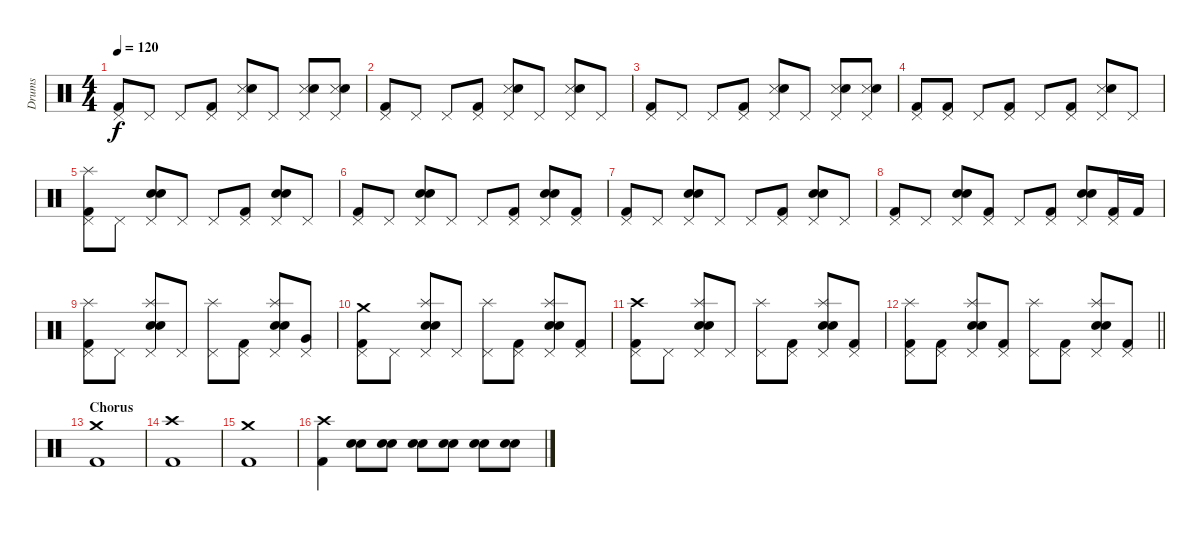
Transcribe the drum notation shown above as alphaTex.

\track ("Drums" "Drums") {instrument percussion}
\staff {score}
\articulation defaults
\ts (4 4)
\tempo 120
\clef neutral
\ks c
("Pedal Hi-Hat (hit)" "Kick (hit) 2").8{dy f} "Pedal Hi-Hat (hit)".8 "Pedal Hi-Hat (hit)".8 ("Pedal Hi-Hat (hit)" "Kick (hit) 2").8 ("Pedal Hi-Hat (hit)" "Snare (side stick) 3" "Electric Snare (hit)").8 "Pedal Hi-Hat (hit)".8 ("Pedal Hi-Hat (hit)" "Snare (side stick) 3" "Electric Snare (hit)").8 ("Pedal Hi-Hat (hit)" "Snare (side stick) 3" "Electric Snare (hit)").8 |
("Pedal Hi-Hat (hit)" "Kick (hit) 2").8 "Pedal Hi-Hat (hit)".8 "Pedal Hi-Hat (hit)".8 ("Pedal Hi-Hat (hit)" "Kick (hit) 2").8 ("Pedal Hi-Hat (hit)" "Snare (side stick) 3" "Electric Snare (hit)").8 "Pedal Hi-Hat (hit)".8 ("Pedal Hi-Hat (hit)" "Snare (side stick) 3" "Electric Snare (hit)").8 "Pedal Hi-Hat (hit)".8 |
("Pedal Hi-Hat (hit)" "Kick (hit) 2").8 "Pedal Hi-Hat (hit)".8 "Pedal Hi-Hat (hit)".8 ("Pedal Hi-Hat (hit)" "Kick (hit) 2").8 ("Pedal Hi-Hat (hit)" "Snare (side stick) 3" "Electric Snare (hit)").8 "Pedal Hi-Hat (hit)".8 ("Pedal Hi-Hat (hit)" "Snare (side stick) 3" "Electric Snare (hit)").8 ("Pedal Hi-Hat (hit)" "Snare (side stick) 3" "Electric Snare (hit)").8 |
("Pedal Hi-Hat (hit)" "Kick (hit) 2").8 ("Pedal Hi-Hat (hit)" "Kick (hit) 2").8 "Pedal Hi-Hat (hit)".8 ("Pedal Hi-Hat (hit)" "Kick (hit) 2").8 "Pedal Hi-Hat (hit)".8 ("Pedal Hi-Hat (hit)" "Kick (hit) 2").8 ("Pedal Hi-Hat (hit)" "Snare (side stick) 3" "Electric Snare (hit)").8 "Pedal Hi-Hat (hit)".8 |
("Splash (hit)" "Pedal Hi-Hat (hit)" "Kick (hit) 2").8 "Pedal Hi-Hat (hit)".8 ("Pedal Hi-Hat (hit)" "Electric Snare (hit)" "Snare (hit) 2").8 "Pedal Hi-Hat (hit)".8 "Pedal Hi-Hat (hit)".8 ("Pedal Hi-Hat (hit)" "Kick (hit) 2").8 ("Pedal Hi-Hat (hit)" "Electric Snare (hit)" "Snare (hit) 2").8 "Pedal Hi-Hat (hit)".8 |
("Pedal Hi-Hat (hit)" "Kick (hit) 2").8 "Pedal Hi-Hat (hit)".8 ("Pedal Hi-Hat (hit)" "Electric Snare (hit)" "Snare (hit) 2").8 "Pedal Hi-Hat (hit)".8 "Pedal Hi-Hat (hit)".8 ("Pedal Hi-Hat (hit)" "Kick (hit) 2").8 ("Pedal Hi-Hat (hit)" "Electric Snare (hit)" "Snare (hit) 2").8 ("Pedal Hi-Hat (hit)" "Kick (hit) 2").8 |
("Pedal Hi-Hat (hit)" "Kick (hit) 2").8 "Pedal Hi-Hat (hit)".8 ("Pedal Hi-Hat (hit)" "Electric Snare (hit)" "Snare (hit) 2").8 "Pedal Hi-Hat (hit)".8 "Pedal Hi-Hat (hit)".8 ("Pedal Hi-Hat (hit)" "Kick (hit) 2").8 ("Pedal Hi-Hat (hit)" "Electric Snare (hit)" "Snare (hit) 2").8 "Pedal Hi-Hat (hit)".8 |
("Pedal Hi-Hat (hit)" "Kick (hit) 2").8 "Pedal Hi-Hat (hit)".8 ("Pedal Hi-Hat (hit)" "Electric Snare (hit)" "Snare (hit) 2").8 ("Pedal Hi-Hat (hit)" "Kick (hit) 2").8 "Pedal Hi-Hat (hit)".8 ("Pedal Hi-Hat (hit)" "Kick (hit) 2").8 ("Pedal Hi-Hat (hit)" "Electric Snare (hit)" "Snare (hit) 2").8 ("Pedal Hi-Hat (hit)" "Kick (hit) 2").16 "Kick (hit) 2".16 |
("Splash (hit)" "Pedal Hi-Hat (hit)" "Kick (hit) 2").8 "Pedal Hi-Hat (hit)".8 ("Splash (hit)" "Pedal Hi-Hat (hit)" "Electric Snare (hit)" "Snare (hit) 2").8 "Pedal Hi-Hat (hit)".8 ("Splash (hit)" "Pedal Hi-Hat (hit)").8 ("Pedal Hi-Hat (hit)" "Kick (hit) 2").8 ("Splash (hit)" "Pedal Hi-Hat (hit)" "Electric Snare (hit)" "Snare (hit) 2").8 ("Pedal Hi-Hat (hit)" "Very Low Tom (hit)").8 |
("Crash medium (hit)" "Pedal Hi-Hat (hit)" "Kick (hit) 2").8 "Pedal Hi-Hat (hit)".8 ("Splash (hit)" "Pedal Hi-Hat (hit)" "Electric Snare (hit)" "Snare (hit) 2").8 "Pedal Hi-Hat (hit)".8 ("Splash (hit)" "Pedal Hi-Hat (hit)").8 ("Pedal Hi-Hat (hit)" "Kick (hit) 2").8 ("Splash (hit)" "Pedal Hi-Hat (hit)" "Electric Snare (hit)" "Snare (hit) 2").8 ("Pedal Hi-Hat (hit)" "Kick (hit) 2").8 |
("Crash high (hit)" "Pedal Hi-Hat (hit)" "Kick (hit) 2").8 "Pedal Hi-Hat (hit)".8 ("Splash (hit)" "Pedal Hi-Hat (hit)" "Electric Snare (hit)" "Snare (hit) 2").8 "Pedal Hi-Hat (hit)".8 ("Splash (hit)" "Pedal Hi-Hat (hit)").8 ("Pedal Hi-Hat (hit)" "Kick (hit) 2").8 ("Splash (hit)" "Pedal Hi-Hat (hit)" "Electric Snare (hit)" "Snare (hit) 2").8 ("Pedal Hi-Hat (hit)" "Kick (hit) 2").8 |
\barLineRight lightlight
("Splash (hit)" "Pedal Hi-Hat (hit)" "Kick (hit) 2").8 ("Pedal Hi-Hat (hit)" "Kick (hit) 2").8 ("Splash (hit)" "Pedal Hi-Hat (hit)" "Electric Snare (hit)" "Snare (hit) 2").8 ("Pedal Hi-Hat (hit)" "Kick (hit) 2").8 ("Splash (hit)" "Pedal Hi-Hat (hit)").8 ("Pedal Hi-Hat (hit)" "Kick (hit) 2").8 ("Splash (hit)" "Pedal Hi-Hat (hit)" "Electric Snare (hit)" "Snare (hit) 2").8 ("Pedal Hi-Hat (hit)" "Kick (hit) 2").8 |
\section ("" "Chorus")
("Crash medium (hit)" "Kick (hit) 2").1 |
("Crash high (hit)" "Kick (hit) 2").1 |
("Crash medium (hit)" "Kick (hit) 2").1 |
("Crash high (hit)" "Kick (hit) 2").4 ("Electric Snare (hit)" "Snare (hit) 2").8 ("Electric Snare (hit)" "Snare (hit) 2").8 ("Electric Snare (hit)" "Snare (hit) 2").8 ("Electric Snare (hit)" "Snare (hit) 2").8 ("Electric Snare (hit)" "Snare (hit) 2").8 ("Electric Snare (hit)" "Snare (hit) 2").8
